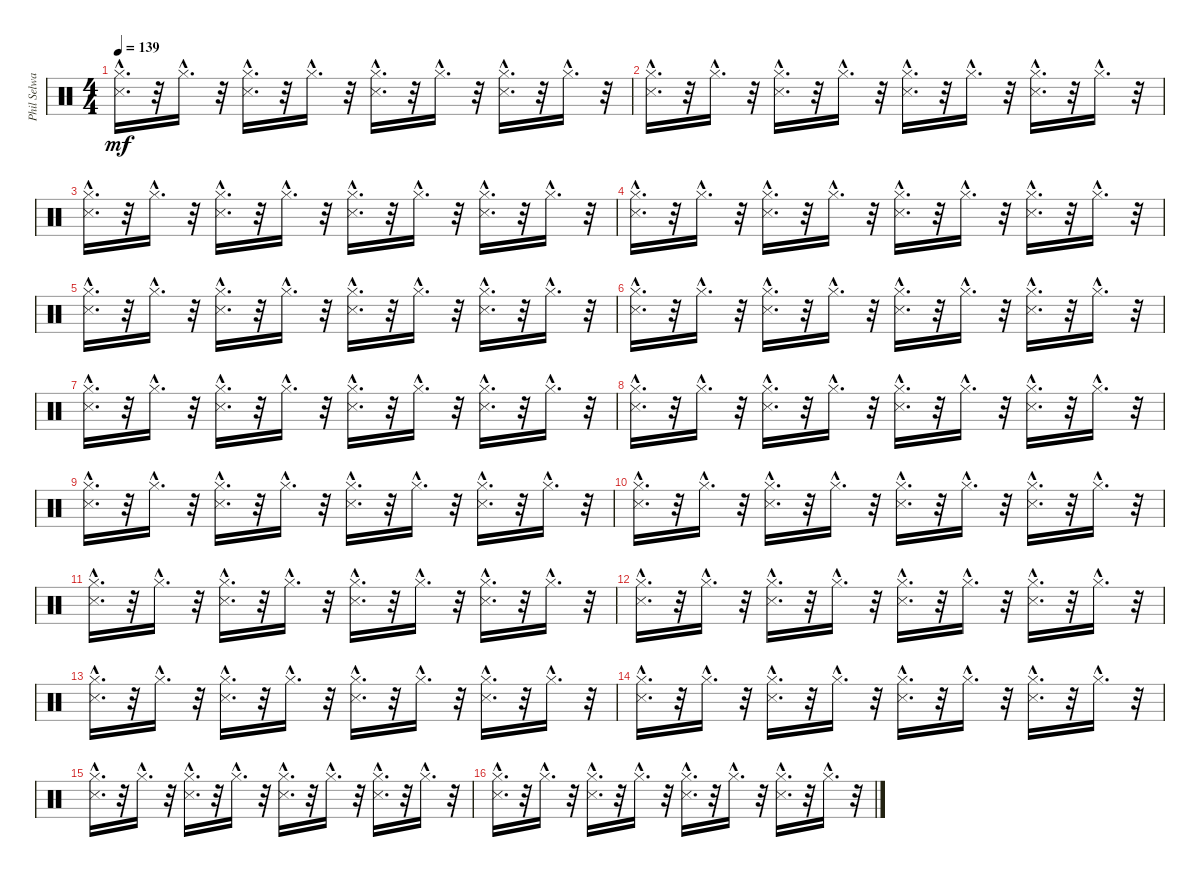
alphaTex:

\track ("Phil Selway - Drums" "Phil Selwa") {instrument percussion}
\staff {score}
\articulation defaults
\ts (4 4)
\tempo 139
\clef neutral
\ks c
("Hi-Hat (closed)"{hac} "Snare (side stick) 3"{hac}).16{d dy mf} r.32 "Hi-Hat (closed)"{hac}.16{d} r.32 ("Hi-Hat (closed)"{hac} "Snare (side stick) 3"{hac}).16{d} r.32 "Hi-Hat (closed)"{hac}.16{d} r.32 ("Hi-Hat (closed)"{hac} "Snare (side stick) 3"{hac}).16{d} r.32 "Hi-Hat (closed)"{hac}.16{d} r.32 ("Hi-Hat (closed)"{hac} "Snare (side stick) 3"{hac}).16{d} r.32 "Hi-Hat (closed)"{hac}.16{d} r.32 |
("Hi-Hat (closed)"{hac} "Snare (side stick) 3"{hac}).16{d} r.32 "Hi-Hat (closed)"{hac}.16{d} r.32 ("Hi-Hat (closed)"{hac} "Snare (side stick) 3"{hac}).16{d} r.32 "Hi-Hat (closed)"{hac}.16{d} r.32 ("Hi-Hat (closed)"{hac} "Snare (side stick) 3"{hac}).16{d} r.32 "Hi-Hat (closed)"{hac}.16{d} r.32 ("Hi-Hat (closed)"{hac} "Snare (side stick) 3"{hac}).16{d} r.32 "Hi-Hat (closed)"{hac}.16{d} r.32 |
("Snare (side stick) 3"{hac} "Hi-Hat (closed)"{hac}).16{d} r.32 "Hi-Hat (closed)"{hac}.16{d} r.32 ("Snare (side stick) 3"{hac} "Hi-Hat (closed)"{hac}).16{d} r.32 "Hi-Hat (closed)"{hac}.16{d} r.32 ("Snare (side stick) 3"{hac} "Hi-Hat (closed)"{hac}).16{d} r.32 "Hi-Hat (closed)"{hac}.16{d} r.32 ("Snare (side stick) 3"{hac} "Hi-Hat (closed)"{hac}).16{d} r.32 "Hi-Hat (closed)"{hac}.16{d} r.32 |
("Snare (side stick) 3"{hac} "Hi-Hat (closed)"{hac}).16{d} r.32 "Hi-Hat (closed)"{hac}.16{d} r.32 ("Snare (side stick) 3"{hac} "Hi-Hat (closed)"{hac}).16{d} r.32 "Hi-Hat (closed)"{hac}.16{d} r.32 ("Snare (side stick) 3"{hac} "Hi-Hat (closed)"{hac}).16{d} r.32 "Hi-Hat (closed)"{hac}.16{d} r.32 ("Snare (side stick) 3"{hac} "Hi-Hat (closed)"{hac}).16{d} r.32 "Hi-Hat (closed)"{hac}.16{d} r.32 |
("Snare (side stick) 3"{hac} "Hi-Hat (closed)"{hac}).16{d} r.32 "Hi-Hat (closed)"{hac}.16{d} r.32 ("Snare (side stick) 3"{hac} "Hi-Hat (closed)"{hac}).16{d} r.32 "Hi-Hat (closed)"{hac}.16{d} r.32 ("Snare (side stick) 3"{hac} "Hi-Hat (closed)"{hac}).16{d} r.32 "Hi-Hat (closed)"{hac}.16{d} r.32 ("Snare (side stick) 3"{hac} "Hi-Hat (closed)"{hac}).16{d} r.32 "Hi-Hat (closed)"{hac}.16{d} r.32 |
("Snare (side stick) 3"{hac} "Hi-Hat (closed)"{hac}).16{d} r.32 "Hi-Hat (closed)"{hac}.16{d} r.32 ("Snare (side stick) 3"{hac} "Hi-Hat (closed)"{hac}).16{d} r.32 "Hi-Hat (closed)"{hac}.16{d} r.32 ("Snare (side stick) 3"{hac} "Hi-Hat (closed)"{hac}).16{d} r.32 "Hi-Hat (closed)"{hac}.16{d} r.32 ("Snare (side stick) 3"{hac} "Hi-Hat (closed)"{hac}).16{d} r.32 "Hi-Hat (closed)"{hac}.16{d} r.32 |
("Hi-Hat (closed)"{hac} "Snare (side stick) 3"{hac}).16{d} r.32 "Hi-Hat (closed)"{hac}.16{d} r.32 ("Hi-Hat (closed)"{hac} "Snare (side stick) 3"{hac}).16{d} r.32 "Hi-Hat (closed)"{hac}.16{d} r.32 ("Hi-Hat (closed)"{hac} "Snare (side stick) 3"{hac}).16{d} r.32 "Hi-Hat (closed)"{hac}.16{d} r.32 ("Hi-Hat (closed)"{hac} "Snare (side stick) 3"{hac}).16{d} r.32 "Hi-Hat (closed)"{hac}.16{d} r.32 |
("Hi-Hat (closed)"{hac} "Snare (side stick) 3"{hac}).16{d} r.32 "Hi-Hat (closed)"{hac}.16{d} r.32 ("Hi-Hat (closed)"{hac} "Snare (side stick) 3"{hac}).16{d} r.32 "Hi-Hat (closed)"{hac}.16{d} r.32 ("Hi-Hat (closed)"{hac} "Snare (side stick) 3"{hac}).16{d} r.32 "Hi-Hat (closed)"{hac}.16{d} r.32 ("Hi-Hat (closed)"{hac} "Snare (side stick) 3"{hac}).16{d} r.32 "Hi-Hat (closed)"{hac}.16{d} r.32 |
("Hi-Hat (closed)"{hac} "Snare (side stick) 3"{hac}).16{d} r.32 "Hi-Hat (closed)"{hac}.16{d} r.32 ("Hi-Hat (closed)"{hac} "Snare (side stick) 3"{hac}).16{d} r.32 "Hi-Hat (closed)"{hac}.16{d} r.32 ("Hi-Hat (closed)"{hac} "Snare (side stick) 3"{hac}).16{d} r.32 "Hi-Hat (closed)"{hac}.16{d} r.32 ("Hi-Hat (closed)"{hac} "Snare (side stick) 3"{hac}).16{d} r.32 "Hi-Hat (closed)"{hac}.16{d} r.32 |
("Hi-Hat (closed)"{hac} "Snare (side stick) 3"{hac}).16{d} r.32 "Hi-Hat (closed)"{hac}.16{d} r.32 ("Hi-Hat (closed)"{hac} "Snare (side stick) 3"{hac}).16{d} r.32 "Hi-Hat (closed)"{hac}.16{d} r.32 ("Hi-Hat (closed)"{hac} "Snare (side stick) 3"{hac}).16{d} r.32 "Hi-Hat (closed)"{hac}.16{d} r.32 ("Hi-Hat (closed)"{hac} "Snare (side stick) 3"{hac}).16{d} r.32 "Hi-Hat (closed)"{hac}.16{d} r.32 |
("Snare (side stick) 3"{hac} "Hi-Hat (closed)"{hac}).16{d} r.32 "Hi-Hat (closed)"{hac}.16{d} r.32 ("Snare (side stick) 3"{hac} "Hi-Hat (closed)"{hac}).16{d} r.32 "Hi-Hat (closed)"{hac}.16{d} r.32 ("Snare (side stick) 3"{hac} "Hi-Hat (closed)"{hac}).16{d} r.32 "Hi-Hat (closed)"{hac}.16{d} r.32 ("Snare (side stick) 3"{hac} "Hi-Hat (closed)"{hac}).16{d} r.32 "Hi-Hat (closed)"{hac}.16{d} r.32 |
("Snare (side stick) 3"{hac} "Hi-Hat (closed)"{hac}).16{d} r.32 "Hi-Hat (closed)"{hac}.16{d} r.32 ("Snare (side stick) 3"{hac} "Hi-Hat (closed)"{hac}).16{d} r.32 "Hi-Hat (closed)"{hac}.16{d} r.32 ("Snare (side stick) 3"{hac} "Hi-Hat (closed)"{hac}).16{d} r.32 "Hi-Hat (closed)"{hac}.16{d} r.32 ("Snare (side stick) 3"{hac} "Hi-Hat (closed)"{hac}).16{d} r.32 "Hi-Hat (closed)"{hac}.16{d} r.32 |
("Snare (side stick) 3"{hac} "Hi-Hat (closed)"{hac}).16{d} r.32 "Hi-Hat (closed)"{hac}.16{d} r.32 ("Snare (side stick) 3"{hac} "Hi-Hat (closed)"{hac}).16{d} r.32 "Hi-Hat (closed)"{hac}.16{d} r.32 ("Snare (side stick) 3"{hac} "Hi-Hat (closed)"{hac}).16{d} r.32 "Hi-Hat (closed)"{hac}.16{d} r.32 ("Snare (side stick) 3"{hac} "Hi-Hat (closed)"{hac}).16{d} r.32 "Hi-Hat (closed)"{hac}.16{d} r.32 |
("Snare (side stick) 3"{hac} "Hi-Hat (closed)"{hac}).16{d} r.32 "Hi-Hat (closed)"{hac}.16{d} r.32 ("Snare (side stick) 3"{hac} "Hi-Hat (closed)"{hac}).16{d} r.32 "Hi-Hat (closed)"{hac}.16{d} r.32 ("Snare (side stick) 3"{hac} "Hi-Hat (closed)"{hac}).16{d} r.32 "Hi-Hat (closed)"{hac}.16{d} r.32 ("Snare (side stick) 3"{hac} "Hi-Hat (closed)"{hac}).16{d} r.32 "Hi-Hat (closed)"{hac}.16{d} r.32 |
("Hi-Hat (closed)"{hac} "Snare (side stick) 3"{hac}).16{d} r.32 "Hi-Hat (closed)"{hac}.16{d} r.32 ("Hi-Hat (closed)"{hac} "Snare (side stick) 3"{hac}).16{d} r.32 "Hi-Hat (closed)"{hac}.16{d} r.32 ("Hi-Hat (closed)"{hac} "Snare (side stick) 3"{hac}).16{d} r.32 "Hi-Hat (closed)"{hac}.16{d} r.32 ("Hi-Hat (closed)"{hac} "Snare (side stick) 3"{hac}).16{d} r.32 "Hi-Hat (closed)"{hac}.16{d} r.32 |
("Hi-Hat (closed)"{hac} "Snare (side stick) 3"{hac}).16{d} r.32 "Hi-Hat (closed)"{hac}.16{d} r.32 ("Hi-Hat (closed)"{hac} "Snare (side stick) 3"{hac}).16{d} r.32 "Hi-Hat (closed)"{hac}.16{d} r.32 ("Hi-Hat (closed)"{hac} "Snare (side stick) 3"{hac}).16{d} r.32 "Hi-Hat (closed)"{hac}.16{d} r.32 ("Hi-Hat (closed)"{hac} "Snare (side stick) 3"{hac}).16{d} r.32 "Hi-Hat (closed)"{hac}.16{d} r.32
